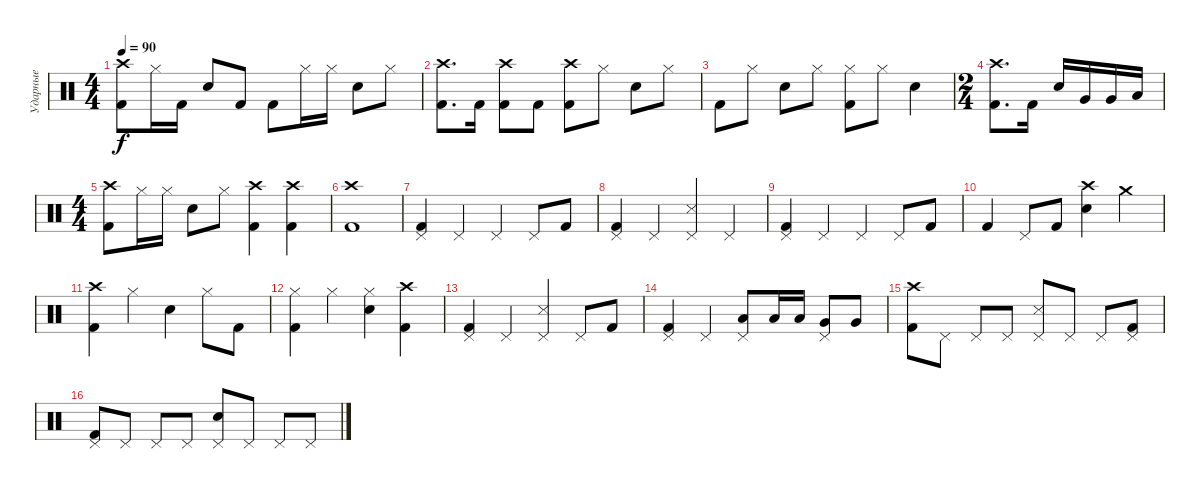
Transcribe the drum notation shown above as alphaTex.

\track ("Ударные" "Ударные") {instrument percussion}
\staff {score}
\articulation defaults
\ts (4 4)
\tempo 90
\clef neutral
\ks c
("Crash high (hit)" "Kick (hit) 2").8{dy f} "Hi-Hat (closed)".16 "Kick (hit) 2".16 "Snare (hit) 2".8 "Kick (hit) 2".8 "Kick (hit) 2".8 "Hi-Hat (closed)".16 "Hi-Hat (closed)".16 "Snare (hit) 2".8 "Hi-Hat (closed)".8 |
("Crash high (hit)" "Kick (hit) 2").8{d} "Kick (hit) 2".16 ("Crash high (hit)" "Kick (hit) 2").8 "Kick (hit) 2".8 ("Crash high (hit)" "Kick (hit) 2").8 "Hi-Hat (closed)".8 "Snare (hit) 2".8 "Hi-Hat (closed)".8 |
"Kick (hit) 2".8 "Hi-Hat (closed)".8 "Snare (hit) 2".8 "Hi-Hat (closed)".8 ("Hi-Hat (closed)" "Kick (hit) 2").8 "Hi-Hat (closed)".8 "Snare (hit) 2".4 |
\ts (2 4)
("Crash high (hit)" "Kick (hit) 2").8{d} "Kick (hit) 2".16 "Snare (hit) 2".16 "Very Low Tom (hit)".16 "Very Low Tom (hit)".16 "Low Floor Tom (hit)".16 |
\ts (4 4)
("Crash high (hit)" "Kick (hit) 2").8 "Hi-Hat (closed)".16 "Hi-Hat (closed)".16 "Snare (hit) 2".8 "Hi-Hat (closed)".8 ("Crash high (hit)" "Kick (hit) 2").4 ("Crash high (hit)" "Kick (hit) 2").4 |
("Crash high (hit)" "Kick (hit) 2").1 |
("Pedal Hi-Hat (hit)" "Kick (hit) 2").4 "Pedal Hi-Hat (hit)".4 "Pedal Hi-Hat (hit)".4 "Pedal Hi-Hat (hit)".8 "Kick (hit) 2".8 |
("Pedal Hi-Hat (hit)" "Kick (hit) 2").4 "Pedal Hi-Hat (hit)".4 ("Pedal Hi-Hat (hit)" "Snare (side stick) 3").4 "Pedal Hi-Hat (hit)".4 |
("Pedal Hi-Hat (hit)" "Kick (hit) 2").4 "Pedal Hi-Hat (hit)".4 "Pedal Hi-Hat (hit)".4 "Pedal Hi-Hat (hit)".8 "Kick (hit) 2".8 |
"Kick (hit) 2".4 "Pedal Hi-Hat (hit)".8 "Kick (hit) 2".8 ("Crash high (hit)" "Snare (hit) 2").4 "Crash medium (hit)".4 |
("Crash high (hit)" "Kick (hit) 2").4 "Hi-Hat (closed)".4 "Snare (hit) 2".4 "Hi-Hat (closed)".8 "Kick (hit) 2".8 |
("Hi-Hat (closed)" "Kick (hit) 2").4 "Hi-Hat (closed)".4 ("Hi-Hat (closed)" "Snare (hit) 2").4 ("Crash high (hit)" "Kick (hit) 2").4 |
("Pedal Hi-Hat (hit)" "Kick (hit) 2").4 "Pedal Hi-Hat (hit)".4 ("Pedal Hi-Hat (hit)" "Snare (side stick) 3").4 "Pedal Hi-Hat (hit)".8 "Kick (hit) 2".8 |
("Pedal Hi-Hat (hit)" "Kick (hit) 2").4 "Pedal Hi-Hat (hit)".4 ("Pedal Hi-Hat (hit)" "Low Tom (hit)").8 "Low Tom (hit)".16 "Low Tom (hit)".16 ("Pedal Hi-Hat (hit)" "Very Low Tom (hit)").8 "Very Low Tom (hit)".8 |
("Crash high (hit)" "Kick (hit) 2").8 "Pedal Hi-Hat (hit)".8 "Pedal Hi-Hat (hit)".8 "Pedal Hi-Hat (hit)".8 ("Pedal Hi-Hat (hit)" "Snare (side stick) 3").8 "Pedal Hi-Hat (hit)".8 "Pedal Hi-Hat (hit)".8 ("Pedal Hi-Hat (hit)" "Kick (hit) 2").8 |
("Pedal Hi-Hat (hit)" "Kick (hit) 2").8 "Pedal Hi-Hat (hit)".8 "Pedal Hi-Hat (hit)".8 "Pedal Hi-Hat (hit)".8 ("Pedal Hi-Hat (hit)" "Snare (hit) 2").8 "Pedal Hi-Hat (hit)".8 "Pedal Hi-Hat (hit)".8 "Pedal Hi-Hat (hit)".8
